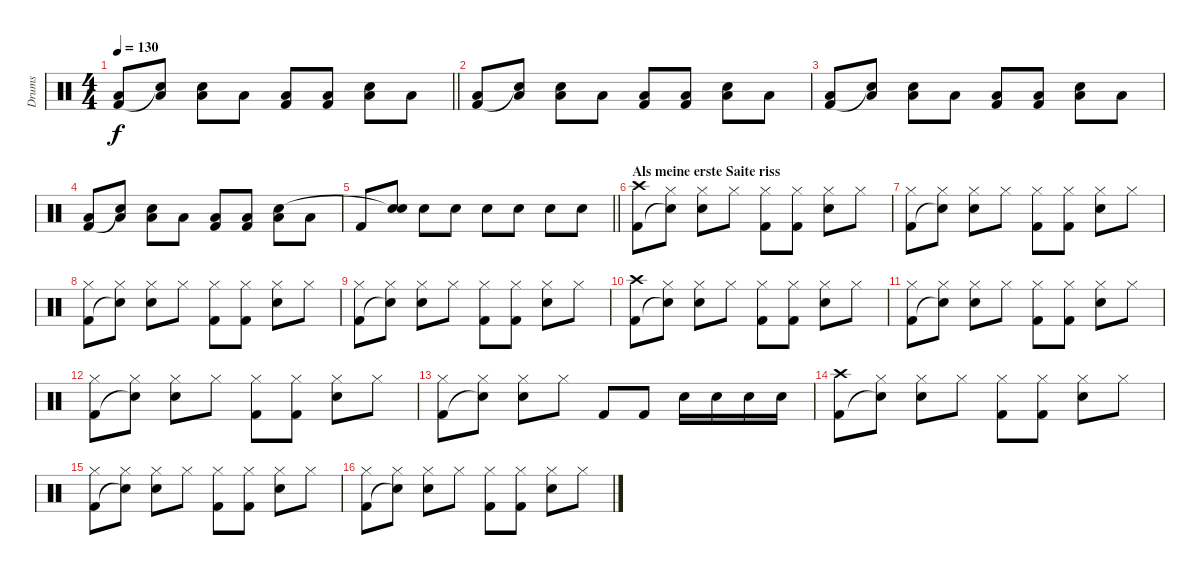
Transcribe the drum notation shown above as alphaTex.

\track ("Drums" "Drums") {instrument percussion}
\staff {score}
\articulation defaults
\ts (4 4)
\tempo 130
\clef neutral
\barLineRight lightlight
\ks c
("Low Floor Tom (hit)" "Kick (hit) 2").8{dy f} ("Low Floor Tom (hit)" "Snare (hit)"{t}).8 ("Low Floor Tom (hit)" "Snare (hit) 2").8 "Low Floor Tom (hit)".8 ("Low Floor Tom (hit)" "Kick (hit) 2").8 ("Low Floor Tom (hit)" "Kick (hit) 2").8 ("Low Floor Tom (hit)" "Snare (hit) 2").8 "Low Floor Tom (hit)".8 |
("Low Floor Tom (hit)" "Kick (hit) 2").8 ("Low Floor Tom (hit)" "Snare (hit)"{t}).8 ("Low Floor Tom (hit)" "Snare (hit) 2").8 "Low Floor Tom (hit)".8 ("Low Floor Tom (hit)" "Kick (hit) 2").8 ("Low Floor Tom (hit)" "Kick (hit) 2").8 ("Low Floor Tom (hit)" "Snare (hit) 2").8 "Low Floor Tom (hit)".8 |
("Low Floor Tom (hit)" "Kick (hit) 2").8 ("Low Floor Tom (hit)" "Snare (hit)"{t}).8 ("Low Floor Tom (hit)" "Snare (hit) 2").8 "Low Floor Tom (hit)".8 ("Low Floor Tom (hit)" "Kick (hit) 2").8 ("Low Floor Tom (hit)" "Kick (hit) 2").8 ("Low Floor Tom (hit)" "Snare (hit) 2").8 "Low Floor Tom (hit)".8 |
("Low Floor Tom (hit)" "Kick (hit) 2").8 ("Low Floor Tom (hit)" "Snare (hit)"{t}).8 ("Low Floor Tom (hit)" "Snare (hit) 2").8 "Low Floor Tom (hit)".8 ("Low Floor Tom (hit)" "Kick (hit) 2").8 ("Low Floor Tom (hit)" "Kick (hit) 2").8 ("Low Floor Tom (hit)" "Snare (hit) 2").8 "Low Floor Tom (hit)".8 |
\barLineRight lightlight "Kick (hit) 2".8
("Snare (hit) 2" "Snare (hit)"{t}).8 "Snare (hit) 2".8 "Snare (hit) 2".8 "Snare (hit) 2".8 "Snare (hit) 2".8 "Snare (hit) 2".8 "Snare (hit) 2".8 |
\section ("" "Als meine erste Saite riss")
("Crash high (hit)" "Kick (hit) 2").8 ("Hi-Hat (closed)" "Snare (hit)"{t}).8 ("Hi-Hat (closed)" "Snare (hit) 2").8 "Hi-Hat (closed)".8 ("Hi-Hat (closed)" "Kick (hit) 2").8 ("Hi-Hat (closed)" "Kick (hit) 2").8 ("Hi-Hat (closed)" "Snare (hit) 2").8 "Hi-Hat (closed)".8 |
("Hi-Hat (closed)" "Kick (hit) 2").8 ("Hi-Hat (closed)" "Snare (hit)"{t}).8 ("Hi-Hat (closed)" "Snare (hit) 2").8 "Hi-Hat (closed)".8 ("Hi-Hat (closed)" "Kick (hit) 2").8 ("Hi-Hat (closed)" "Kick (hit) 2").8 ("Hi-Hat (closed)" "Snare (hit) 2").8 "Hi-Hat (closed)".8 |
("Hi-Hat (closed)" "Kick (hit) 2").8 ("Hi-Hat (closed)" "Snare (hit)"{t}).8 ("Hi-Hat (closed)" "Snare (hit) 2").8 "Hi-Hat (closed)".8 ("Hi-Hat (closed)" "Kick (hit) 2").8 ("Hi-Hat (closed)" "Kick (hit) 2").8 ("Hi-Hat (closed)" "Snare (hit) 2").8 "Hi-Hat (closed)".8 |
("Hi-Hat (closed)" "Kick (hit) 2").8 ("Hi-Hat (closed)" "Snare (hit)"{t}).8 ("Hi-Hat (closed)" "Snare (hit) 2").8 "Hi-Hat (closed)".8 ("Hi-Hat (closed)" "Kick (hit) 2").8 ("Hi-Hat (closed)" "Kick (hit) 2").8 ("Hi-Hat (closed)" "Snare (hit) 2").8 "Hi-Hat (closed)".8 |
("Crash high (hit)" "Kick (hit) 2").8 ("Hi-Hat (closed)" "Snare (hit)"{t}).8 ("Hi-Hat (closed)" "Snare (hit) 2").8 "Hi-Hat (closed)".8 ("Hi-Hat (closed)" "Kick (hit) 2").8 ("Hi-Hat (closed)" "Kick (hit) 2").8 ("Hi-Hat (closed)" "Snare (hit) 2").8 "Hi-Hat (closed)".8 |
("Hi-Hat (closed)" "Kick (hit) 2").8 ("Hi-Hat (closed)" "Snare (hit)"{t}).8 ("Hi-Hat (closed)" "Snare (hit) 2").8 "Hi-Hat (closed)".8 ("Hi-Hat (closed)" "Kick (hit) 2").8 ("Hi-Hat (closed)" "Kick (hit) 2").8 ("Hi-Hat (closed)" "Snare (hit) 2").8 "Hi-Hat (closed)".8 |
("Hi-Hat (closed)" "Kick (hit) 2").8 ("Hi-Hat (closed)" "Snare (hit)"{t}).8 ("Hi-Hat (closed)" "Snare (hit) 2").8 "Hi-Hat (closed)".8 ("Hi-Hat (closed)" "Kick (hit) 2").8 ("Hi-Hat (closed)" "Kick (hit) 2").8 ("Hi-Hat (closed)" "Snare (hit) 2").8 "Hi-Hat (closed)".8 |
("Hi-Hat (closed)" "Kick (hit) 2").8 ("Hi-Hat (closed)" "Snare (hit)"{t}).8 ("Hi-Hat (closed)" "Snare (hit) 2").8 "Hi-Hat (closed)".8 "Kick (hit) 2".8 "Kick (hit) 2".8 "Snare (hit) 2".16 "Snare (hit) 2".16 "Snare (hit) 2".16 "Snare (hit) 2".16 |
("Crash high (hit)" "Kick (hit) 2").8 ("Hi-Hat (closed)" "Snare (hit)"{t}).8 ("Hi-Hat (closed)" "Snare (hit) 2").8 "Hi-Hat (closed)".8 ("Hi-Hat (closed)" "Kick (hit) 2").8 ("Hi-Hat (closed)" "Kick (hit) 2").8 ("Hi-Hat (closed)" "Snare (hit) 2").8 "Hi-Hat (closed)".8 |
("Hi-Hat (closed)" "Kick (hit) 2").8 ("Hi-Hat (closed)" "Snare (hit)"{t}).8 ("Hi-Hat (closed)" "Snare (hit) 2").8 "Hi-Hat (closed)".8 ("Hi-Hat (closed)" "Kick (hit) 2").8 ("Hi-Hat (closed)" "Kick (hit) 2").8 ("Hi-Hat (closed)" "Snare (hit) 2").8 "Hi-Hat (closed)".8 |
("Hi-Hat (closed)" "Kick (hit) 2").8 ("Hi-Hat (closed)" "Snare (hit)"{t}).8 ("Hi-Hat (closed)" "Snare (hit) 2").8 "Hi-Hat (closed)".8 ("Hi-Hat (closed)" "Kick (hit) 2").8 ("Hi-Hat (closed)" "Kick (hit) 2").8 ("Hi-Hat (closed)" "Snare (hit) 2").8 "Hi-Hat (closed)".8
